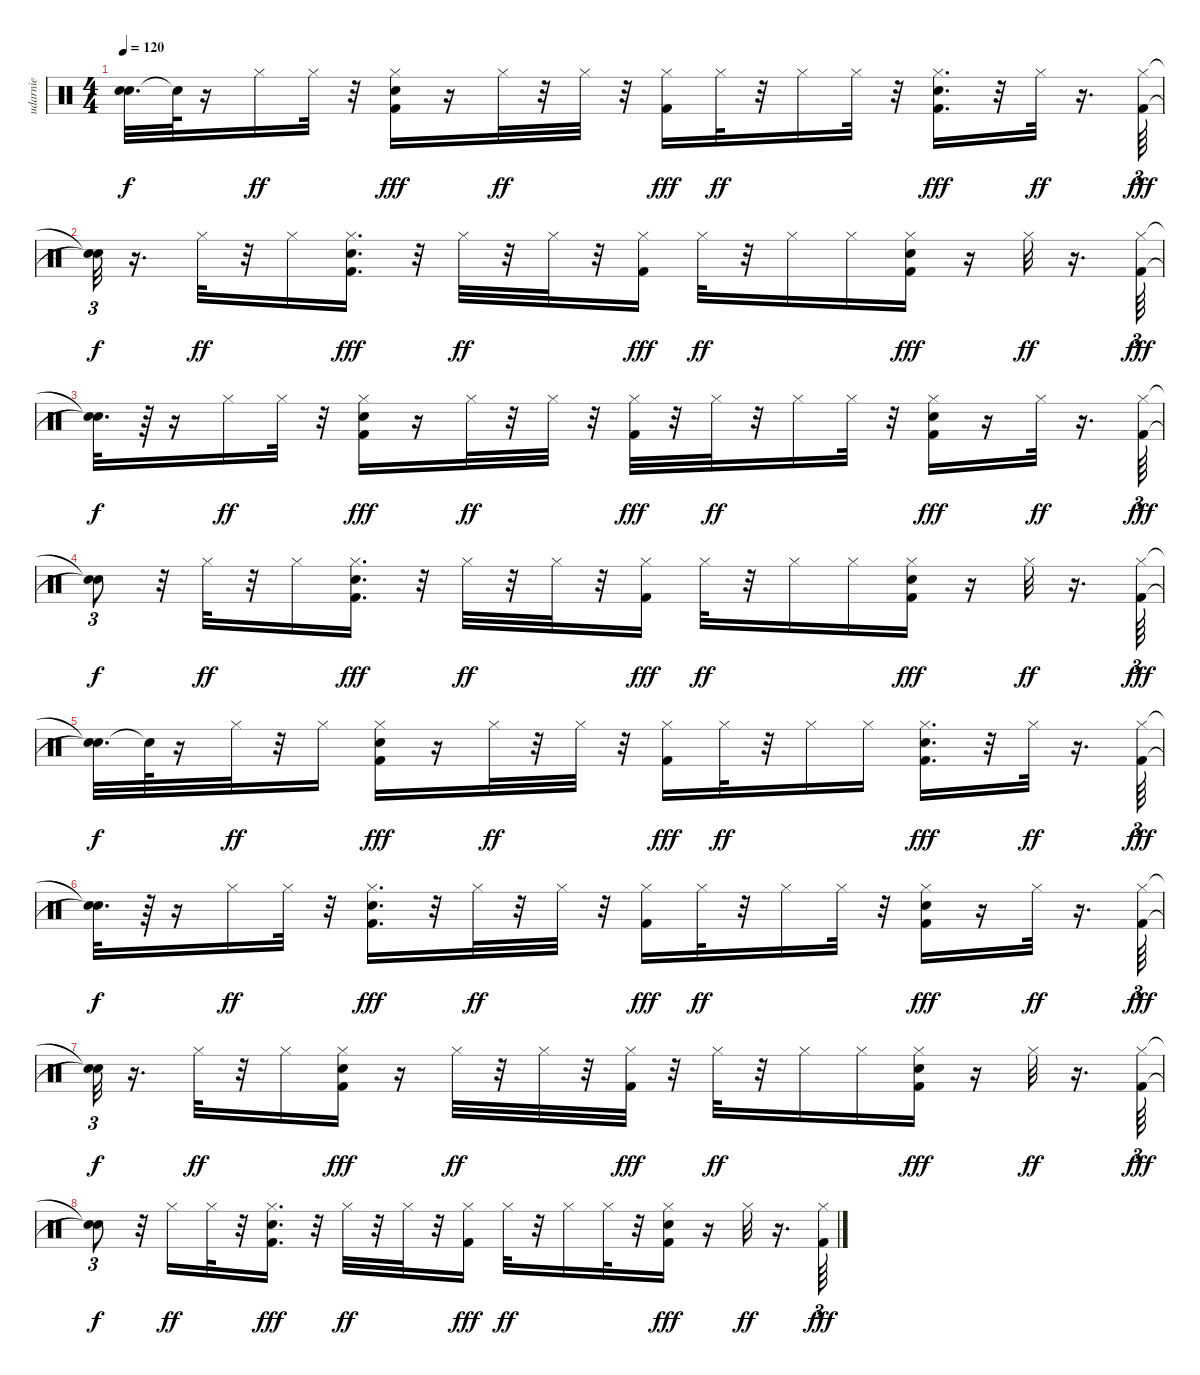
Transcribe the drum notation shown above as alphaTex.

\track ("udarnie" "udarnie") {instrument percussion}
\staff {score}
\articulation defaults
\ts (4 4)
\tempo 120
\clef neutral
\ks c
("Snare (hit)"{t} "Snare (hit)"{t}).32{d dy f} "Snare (hit)"{t}.64 r.16 "Hi-Hat (closed)".16{dy ff} "Hi-Hat (closed)".32 r.32 ("Hi-Hat (closed)" "Electric Snare (hit)" "Kick (hit) 2").16{dy fff} r.16 "Hi-Hat (closed)".32{dy ff} r.32 "Hi-Hat (closed)".32 r.32 ("Hi-Hat (closed)" "Kick (hit) 2").16{dy fff} "Hi-Hat (closed)".32{dy ff} r.32 "Hi-Hat (closed)".16 "Hi-Hat (closed)".32 r.32 ("Hi-Hat (closed)" "Electric Snare (hit)" "Kick (hit) 2").16{d dy fff} r.32 "Hi-Hat (closed)".32{dy ff} r.16{d} ("Hi-Hat (closed)" "Kick (hit) 2").64{tu (3 2) dy fff} |
("Snare (hit)"{t} "Snare (hit)"{t}).32{tu (3 2) dy f} r.16{d} "Hi-Hat (closed)".32{dy ff} r.32 "Hi-Hat (closed)".16 ("Hi-Hat (closed)" "Electric Snare (hit)" "Kick (hit) 2").16{d dy fff} r.32 "Hi-Hat (closed)".32{dy ff} r.32 "Hi-Hat (closed)".32 r.32 ("Hi-Hat (closed)" "Kick (hit) 2").16{dy fff} "Hi-Hat (closed)".32{dy ff} r.32 "Hi-Hat (closed)".16 "Hi-Hat (closed)".16 ("Hi-Hat (closed)" "Electric Snare (hit)" "Kick (hit) 2").16{dy fff} r.16 "Hi-Hat (closed)".32{dy ff} r.16{d} ("Hi-Hat (closed)" "Kick (hit) 2").64{tu (3 2) dy fff} |
("Snare (hit)"{t} "Snare (hit)"{t}).32{d dy f} r.64 r.16 "Hi-Hat (closed)".16{dy ff} "Hi-Hat (closed)".32 r.32 ("Hi-Hat (closed)" "Electric Snare (hit)" "Kick (hit) 2").16{dy fff} r.16 "Hi-Hat (closed)".32{dy ff} r.32 "Hi-Hat (closed)".32 r.32 ("Hi-Hat (closed)" "Kick (hit) 2").32{dy fff} r.32 "Hi-Hat (closed)".32{dy ff} r.32 "Hi-Hat (closed)".16 "Hi-Hat (closed)".32 r.32 ("Hi-Hat (closed)" "Electric Snare (hit)" "Kick (hit) 2").16{dy fff} r.16 "Hi-Hat (closed)".32{dy ff} r.16{d} ("Hi-Hat (closed)" "Kick (hit) 2").64{tu (3 2) dy fff} |
("Snare (hit)"{t} "Snare (hit)"{t}).8{tu (3 2) dy f} r.32 "Hi-Hat (closed)".32{dy ff} r.32 "Hi-Hat (closed)".16 ("Hi-Hat (closed)" "Electric Snare (hit)" "Kick (hit) 2").16{d dy fff} r.32 "Hi-Hat (closed)".32{dy ff} r.32 "Hi-Hat (closed)".32 r.32 ("Hi-Hat (closed)" "Kick (hit) 2").16{dy fff} "Hi-Hat (closed)".32{dy ff} r.32 "Hi-Hat (closed)".16 "Hi-Hat (closed)".16 ("Hi-Hat (closed)" "Electric Snare (hit)" "Kick (hit) 2").16{dy fff} r.16 "Hi-Hat (closed)".32{dy ff} r.16{d} ("Hi-Hat (closed)" "Kick (hit) 2").64{tu (3 2) dy fff} |
("Snare (hit)"{t} "Snare (hit)"{t}).32{d dy f} "Snare (hit)"{t}.64 r.16 "Hi-Hat (closed)".32{dy ff} r.32 "Hi-Hat (closed)".16 ("Hi-Hat (closed)" "Electric Snare (hit)" "Kick (hit) 2").16{dy fff} r.16 "Hi-Hat (closed)".32{dy ff} r.32 "Hi-Hat (closed)".32 r.32 ("Hi-Hat (closed)" "Kick (hit) 2").16{dy fff} "Hi-Hat (closed)".32{dy ff} r.32 "Hi-Hat (closed)".16 "Hi-Hat (closed)".16 ("Hi-Hat (closed)" "Electric Snare (hit)" "Kick (hit) 2").16{d dy fff} r.32 "Hi-Hat (closed)".32{dy ff} r.16{d} ("Hi-Hat (closed)" "Kick (hit) 2").64{tu (3 2) dy fff} |
("Snare (hit)"{t} "Snare (hit)"{t}).32{d dy f} r.64 r.16 "Hi-Hat (closed)".16{dy ff} "Hi-Hat (closed)".32 r.32 ("Hi-Hat (closed)" "Electric Snare (hit)" "Kick (hit) 2").16{d dy fff} r.32 "Hi-Hat (closed)".32{dy ff} r.32 "Hi-Hat (closed)".32 r.32 ("Hi-Hat (closed)" "Kick (hit) 2").16{dy fff} "Hi-Hat (closed)".32{dy ff} r.32 "Hi-Hat (closed)".16 "Hi-Hat (closed)".32 r.32 ("Hi-Hat (closed)" "Electric Snare (hit)" "Kick (hit) 2").16{dy fff} r.16 "Hi-Hat (closed)".32{dy ff} r.16{d} ("Hi-Hat (closed)" "Kick (hit) 2").64{tu (3 2) dy fff} |
("Snare (hit)"{t} "Snare (hit)"{t}).32{tu (3 2) dy f} r.16{d} "Hi-Hat (closed)".32{dy ff} r.32 "Hi-Hat (closed)".16 ("Hi-Hat (closed)" "Electric Snare (hit)" "Kick (hit) 2").16{dy fff} r.16 "Hi-Hat (closed)".32{dy ff} r.32 "Hi-Hat (closed)".32 r.32 ("Hi-Hat (closed)" "Kick (hit) 2").32{dy fff} r.32 "Hi-Hat (closed)".32{dy ff} r.32 "Hi-Hat (closed)".16 "Hi-Hat (closed)".16 ("Hi-Hat (closed)" "Electric Snare (hit)" "Kick (hit) 2").16{dy fff} r.16 "Hi-Hat (closed)".32{dy ff} r.16{d} ("Hi-Hat (closed)" "Kick (hit) 2").64{tu (3 2) dy fff} |
("Snare (hit)"{t} "Snare (hit)"{t}).8{tu (3 2) dy f} r.32 "Hi-Hat (closed)".16{dy ff} "Hi-Hat (closed)".32 r.32 ("Hi-Hat (closed)" "Electric Snare (hit)" "Kick (hit) 2").16{d dy fff} r.32 "Hi-Hat (closed)".32{dy ff} r.32 "Hi-Hat (closed)".32 r.32 ("Hi-Hat (closed)" "Kick (hit) 2").16{dy fff} "Hi-Hat (closed)".32{dy ff} r.32 "Hi-Hat (closed)".16 "Hi-Hat (closed)".32 r.32 ("Hi-Hat (closed)" "Electric Snare (hit)" "Kick (hit) 2").16{dy fff} r.16 "Hi-Hat (closed)".32{dy ff} r.16{d} ("Hi-Hat (closed)" "Kick (hit) 2").64{tu (3 2) dy fff}
